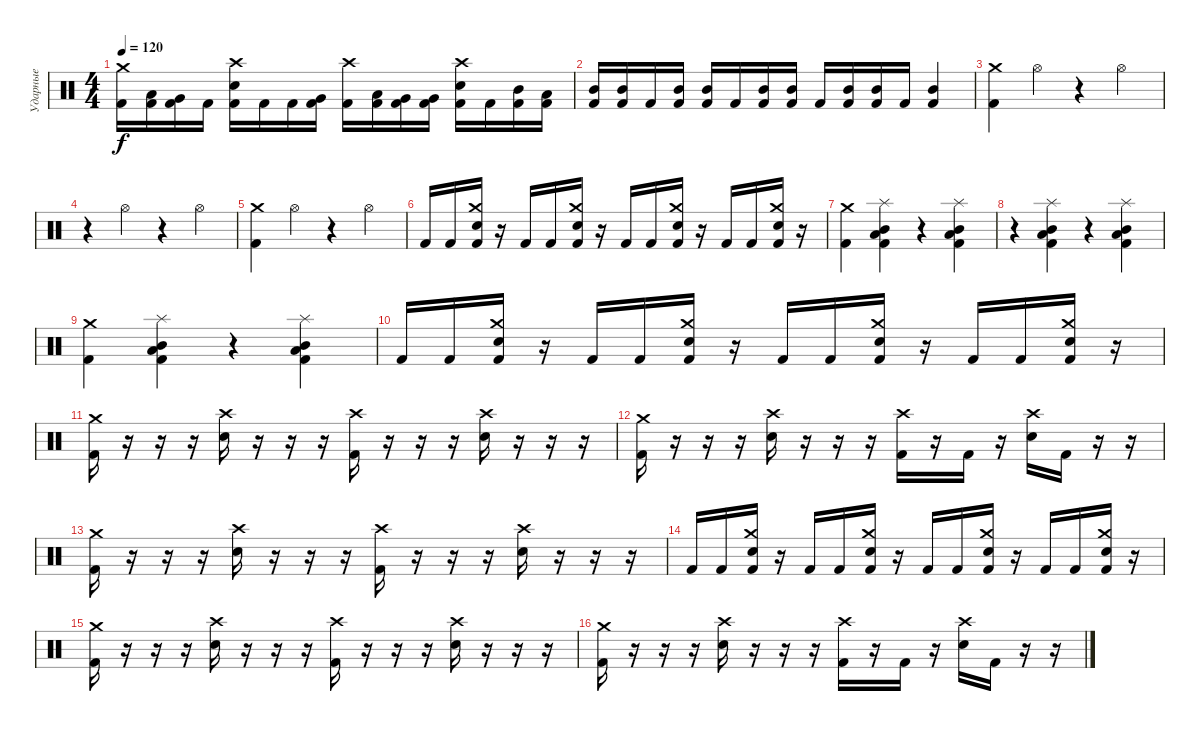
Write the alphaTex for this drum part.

\track ("Ударные" "Ударные") {instrument percussion}
\staff {score}
\articulation defaults
\ts (4 4)
\tempo 120
\clef neutral
\ks c
("Kick (hit) 2" "Crash medium (hit)").16{dy f} ("Kick (hit) 2" "Low Tom (hit)").16 ("Kick (hit) 2" "Very Low Tom (hit)").16 "Kick (hit) 2".16 ("Kick (hit) 2" "Electric Snare (hit)" "Crash high (hit)").16 "Kick (hit) 2".16 "Kick (hit) 2".16 ("Kick (hit) 2" "Very Low Tom (hit)").16 ("Kick (hit) 2" "Crash high (hit)").16 ("Kick (hit) 2" "Low Tom (hit)").16 ("Kick (hit) 2" "Very Low Tom (hit)").16 ("Kick (hit) 2" "Very Low Tom (hit)").16 ("Kick (hit) 2" "Electric Snare (hit)" "Crash high (hit)").16 "Kick (hit) 2".16 ("Kick (hit) 2" "Mid Tom (hit)").16 ("Kick (hit) 2" "Low Tom (hit)").16 |
("Kick (hit) 2" "Mid Tom (hit)").16 ("Kick (hit) 2" "Mid Tom (hit)").16 "Kick (hit) 2".16 ("Kick (hit) 2" "Mid Tom (hit)").16 ("Kick (hit) 2" "Mid Tom (hit)").16 "Kick (hit) 2".16 ("Kick (hit) 2" "Mid Tom (hit)").16 ("Kick (hit) 2" "Mid Tom (hit)").16 "Kick (hit) 2".16 ("Kick (hit) 2" "Mid Tom (hit)").16 ("Kick (hit) 2" "Mid Tom (hit)").16 "Kick (hit) 2".16 ("Kick (hit) 2" "Mid Tom (hit)").4 |
("Kick (hit) 2" "Crash medium (hit)").4 "Hi-Hat (open)".4 r.4 "Hi-Hat (open)".4 |
r.4 "Hi-Hat (open)".4 r.4 "Hi-Hat (open)".4 |
("Kick (hit) 2" "Crash medium (hit)").4 "Hi-Hat (open)".4 r.4 "Hi-Hat (open)".4 |
"Kick (hit) 2".16 "Kick (hit) 2".16 ("Kick (hit) 2" "Crash medium (hit)" "Electric Snare (hit)").16 r.16 "Kick (hit) 2".16 "Kick (hit) 2".16 ("Kick (hit) 2" "Crash medium (hit)" "Electric Snare (hit)").16 r.16 "Kick (hit) 2".16 "Kick (hit) 2".16 ("Kick (hit) 2" "Crash medium (hit)" "Electric Snare (hit)").16 r.16 "Kick (hit) 2".16 "Kick (hit) 2".16 ("Kick (hit) 2" "Crash medium (hit)" "Electric Snare (hit)").16 r.16 |
("Kick (hit) 2" "Crash medium (hit)").4 ("Kick (hit) 2" "Low Tom (hit)" "Mid Tom (hit)" "Splash (hit)").4 r.4 ("Kick (hit) 2" "Low Tom (hit)" "Mid Tom (hit)" "Splash (hit)").4 |
r.4 ("Kick (hit) 2" "Low Tom (hit)" "Mid Tom (hit)" "Splash (hit)").4 r.4 ("Kick (hit) 2" "Low Tom (hit)" "Mid Tom (hit)" "Splash (hit)").4 |
("Kick (hit) 2" "Crash medium (hit)").4 ("Kick (hit) 2" "Low Tom (hit)" "Mid Tom (hit)" "Splash (hit)").4 r.4 ("Kick (hit) 2" "Low Tom (hit)" "Mid Tom (hit)" "Splash (hit)").4 |
"Kick (hit) 2".16 "Kick (hit) 2".16 ("Kick (hit) 2" "Crash medium (hit)" "Electric Snare (hit)").16 r.16 "Kick (hit) 2".16 "Kick (hit) 2".16 ("Kick (hit) 2" "Crash medium (hit)" "Electric Snare (hit)").16 r.16 "Kick (hit) 2".16 "Kick (hit) 2".16 ("Kick (hit) 2" "Crash medium (hit)" "Electric Snare (hit)").16 r.16 "Kick (hit) 2".16 "Kick (hit) 2".16 ("Kick (hit) 2" "Crash medium (hit)" "Electric Snare (hit)").16 r.16 |
("Kick (hit) 2" "Crash medium (hit)").16 r.16 r.16 r.16 ("Electric Snare (hit)" "Crash high (hit)").16 r.16 r.16 r.16 ("Kick (hit) 2" "Crash high (hit)").16 r.16 r.16 r.16 ("Electric Snare (hit)" "Crash high (hit)").16 r.16 r.16 r.16 |
("Kick (hit) 2" "Crash medium (hit)").16 r.16 r.16 r.16 ("Electric Snare (hit)" "Crash high (hit)").16 r.16 r.16 r.16 ("Kick (hit) 2" "Crash high (hit)").16 r.16 "Kick (hit) 2".16 r.16 ("Electric Snare (hit)" "Crash high (hit)").16 "Kick (hit) 2".16 r.16 r.16 |
("Kick (hit) 2" "Crash medium (hit)").16 r.16 r.16 r.16 ("Electric Snare (hit)" "Crash high (hit)").16 r.16 r.16 r.16 ("Kick (hit) 2" "Crash high (hit)").16 r.16 r.16 r.16 ("Electric Snare (hit)" "Crash high (hit)").16 r.16 r.16 r.16 |
"Kick (hit) 2".16 "Kick (hit) 2".16 ("Kick (hit) 2" "Crash medium (hit)" "Electric Snare (hit)").16 r.16 "Kick (hit) 2".16 "Kick (hit) 2".16 ("Kick (hit) 2" "Crash medium (hit)" "Electric Snare (hit)").16 r.16 "Kick (hit) 2".16 "Kick (hit) 2".16 ("Kick (hit) 2" "Crash medium (hit)" "Electric Snare (hit)").16 r.16 "Kick (hit) 2".16 "Kick (hit) 2".16 ("Kick (hit) 2" "Crash medium (hit)" "Electric Snare (hit)").16 r.16 |
("Kick (hit) 2" "Crash medium (hit)").16 r.16 r.16 r.16 ("Electric Snare (hit)" "Crash high (hit)").16 r.16 r.16 r.16 ("Kick (hit) 2" "Crash high (hit)").16 r.16 r.16 r.16 ("Electric Snare (hit)" "Crash high (hit)").16 r.16 r.16 r.16 |
("Kick (hit) 2" "Crash medium (hit)").16 r.16 r.16 r.16 ("Electric Snare (hit)" "Crash high (hit)").16 r.16 r.16 r.16 ("Kick (hit) 2" "Crash high (hit)").16 r.16 "Kick (hit) 2".16 r.16 ("Electric Snare (hit)" "Crash high (hit)").16 "Kick (hit) 2".16 r.16 r.16
